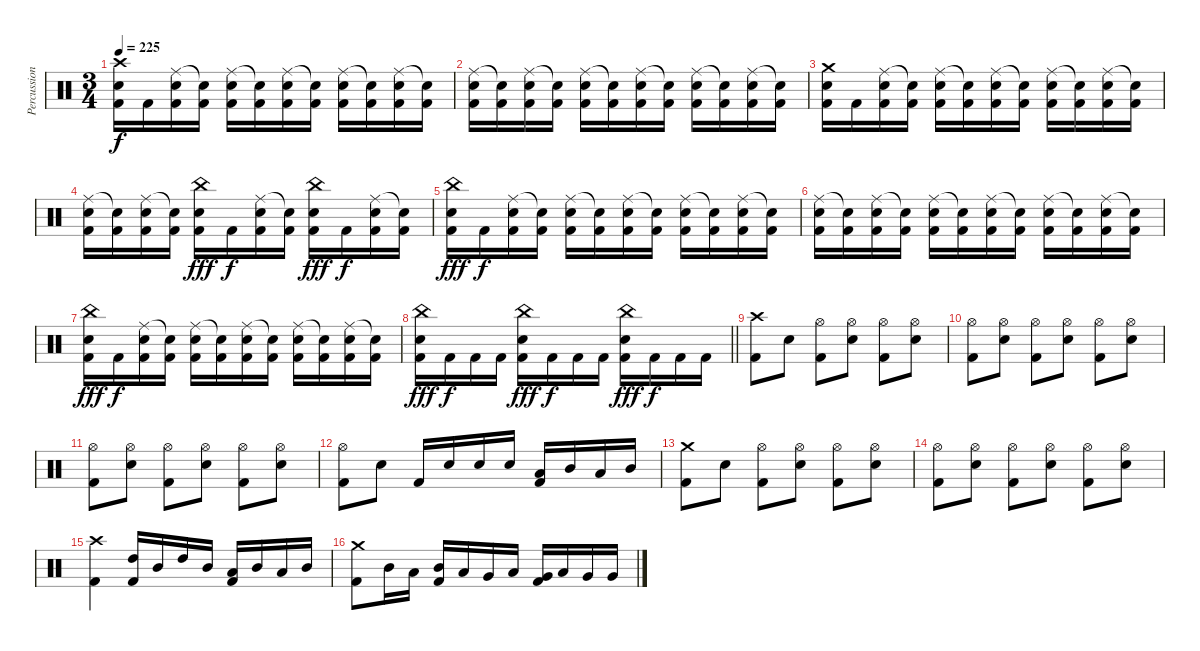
\track ("Percussion" "Percussion") {instrument percussion}
\staff {score}
\articulation defaults
\ts (3 4)
\tempo 225
\clef neutral
\ks c
("Crash high (hit)" "Snare (hit) 2" "Kick (hit) 2").16{dy f} "Kick (hit) 2".16 ("Ride (middle)" "Snare (hit) 2" "Kick (hit) 2").16 ("Snare (hit)"{t} "Kick (hit) 2").16 ("Ride (middle)" "Snare (hit) 2" "Kick (hit) 2").16 ("Snare (hit)"{t} "Kick (hit) 2").16 ("Ride (middle)" "Snare (hit) 2" "Kick (hit) 2").16 ("Snare (hit)"{t} "Kick (hit) 2").16 ("Ride (middle)" "Snare (hit) 2" "Kick (hit) 2").16 ("Snare (hit)"{t} "Kick (hit) 2").16 ("Ride (middle)" "Snare (hit) 2" "Kick (hit) 2").16 ("Snare (hit)"{t} "Kick (hit) 2").16 |
("Ride (middle)" "Snare (hit) 2" "Kick (hit) 2").16 ("Snare (hit)"{t} "Kick (hit) 2").16 ("Ride (middle)" "Snare (hit) 2" "Kick (hit) 2").16 ("Snare (hit)"{t} "Kick (hit) 2").16 ("Ride (middle)" "Snare (hit) 2" "Kick (hit) 2").16 ("Snare (hit)"{t} "Kick (hit) 2").16 ("Ride (middle)" "Snare (hit) 2" "Kick (hit) 2").16 ("Snare (hit)"{t} "Kick (hit) 2").16 ("Ride (middle)" "Snare (hit) 2" "Kick (hit) 2").16 ("Snare (hit)"{t} "Kick (hit) 2").16 ("Ride (middle)" "Snare (hit) 2" "Kick (hit) 2").16 ("Snare (hit)"{t} "Kick (hit) 2").16 |
("Crash medium (hit)" "Snare (hit) 2" "Kick (hit) 2").16 "Kick (hit) 2".16 ("Ride (middle)" "Snare (hit) 2" "Kick (hit) 2").16 ("Snare (hit)"{t} "Kick (hit) 2").16 ("Ride (middle)" "Snare (hit) 2" "Kick (hit) 2").16 ("Snare (hit)"{t} "Kick (hit) 2").16 ("Ride (middle)" "Snare (hit) 2" "Kick (hit) 2").16 ("Snare (hit)"{t} "Kick (hit) 2").16 ("Ride (middle)" "Snare (hit) 2" "Kick (hit) 2").16 ("Snare (hit)"{t} "Kick (hit) 2").16 ("Ride (middle)" "Snare (hit) 2" "Kick (hit) 2").16 ("Snare (hit)"{t} "Kick (hit) 2").16 |
("Ride (middle)" "Snare (hit) 2" "Kick (hit) 2").16 ("Snare (hit)"{t} "Kick (hit) 2").16 ("Ride (middle)" "Snare (hit) 2" "Kick (hit) 2").16 ("Snare (hit)"{t} "Kick (hit) 2").16 ("China (hit)" "Snare (hit) 2" "Kick (hit) 2").16{dy fff} "Kick (hit) 2".16{dy f} ("Ride (middle)" "Snare (hit) 2" "Kick (hit) 2").16 ("Snare (hit)"{t} "Kick (hit) 2").16 ("China (hit)" "Snare (hit) 2" "Kick (hit) 2").16{dy fff} "Kick (hit) 2".16{dy f} ("Ride (middle)" "Snare (hit) 2" "Kick (hit) 2").16 ("Snare (hit)"{t} "Kick (hit) 2").16 |
("China (hit)" "Snare (hit) 2" "Kick (hit) 2").16{dy fff} "Kick (hit) 2".16{dy f} ("Ride (middle)" "Snare (hit) 2" "Kick (hit) 2").16 ("Snare (hit)"{t} "Kick (hit) 2").16 ("Ride (middle)" "Snare (hit) 2" "Kick (hit) 2").16 ("Snare (hit)"{t} "Kick (hit) 2").16 ("Ride (middle)" "Snare (hit) 2" "Kick (hit) 2").16 ("Snare (hit)"{t} "Kick (hit) 2").16 ("Ride (middle)" "Snare (hit) 2" "Kick (hit) 2").16 ("Snare (hit)"{t} "Kick (hit) 2").16 ("Ride (middle)" "Snare (hit) 2" "Kick (hit) 2").16 ("Snare (hit)"{t} "Kick (hit) 2").16 |
("Ride (middle)" "Snare (hit) 2" "Kick (hit) 2").16 ("Snare (hit)"{t} "Kick (hit) 2").16 ("Ride (middle)" "Snare (hit) 2" "Kick (hit) 2").16 ("Snare (hit)"{t} "Kick (hit) 2").16 ("Ride (middle)" "Snare (hit) 2" "Kick (hit) 2").16 ("Snare (hit)"{t} "Kick (hit) 2").16 ("Ride (middle)" "Snare (hit) 2" "Kick (hit) 2").16 ("Snare (hit)"{t} "Kick (hit) 2").16 ("Ride (middle)" "Snare (hit) 2" "Kick (hit) 2").16 ("Snare (hit)"{t} "Kick (hit) 2").16 ("Ride (middle)" "Snare (hit) 2" "Kick (hit) 2").16 ("Snare (hit)"{t} "Kick (hit) 2").16 |
("China (hit)" "Snare (hit) 2" "Kick (hit) 2").16{dy fff} "Kick (hit) 2".16{dy f} ("Ride (middle)" "Snare (hit) 2" "Kick (hit) 2").16 ("Snare (hit)"{t} "Kick (hit) 2").16 ("Ride (middle)" "Snare (hit) 2" "Kick (hit) 2").16 ("Snare (hit)"{t} "Kick (hit) 2").16 ("Ride (middle)" "Snare (hit) 2" "Kick (hit) 2").16 ("Snare (hit)"{t} "Kick (hit) 2").16 ("Ride (middle)" "Snare (hit) 2" "Kick (hit) 2").16 ("Snare (hit)"{t} "Kick (hit) 2").16 ("Ride (middle)" "Snare (hit) 2" "Kick (hit) 2").16 ("Snare (hit)"{t} "Kick (hit) 2").16 |
\barLineRight lightlight
("China (hit)" "Snare (hit) 2" "Kick (hit) 2").16{dy fff} "Kick (hit) 2".16{dy f} "Kick (hit) 2".16 "Kick (hit) 2".16 ("China (hit)" "Snare (hit) 2" "Kick (hit) 2").16{dy fff} "Kick (hit) 2".16{dy f} "Kick (hit) 2".16 "Kick (hit) 2".16 ("China (hit)" "Snare (hit) 2" "Kick (hit) 2").16{dy fff} "Kick (hit) 2".16{dy f} "Kick (hit) 2".16 "Kick (hit) 2".16 |
("Crash high (hit)" "Kick (hit) 2").8 "Snare (hit) 2".8 ("Hi-Hat (open)" "Kick (hit) 2").8 ("Hi-Hat (open)" "Snare (hit) 2").8 ("Hi-Hat (open)" "Kick (hit) 2").8 ("Hi-Hat (open)" "Snare (hit) 2").8 |
("Hi-Hat (open)" "Kick (hit) 2").8 ("Hi-Hat (open)" "Snare (hit) 2").8 ("Hi-Hat (open)" "Kick (hit) 2").8 ("Hi-Hat (open)" "Snare (hit) 2").8 ("Hi-Hat (open)" "Kick (hit) 2").8 ("Hi-Hat (open)" "Snare (hit) 2").8 |
("Hi-Hat (open)" "Kick (hit) 2").8 ("Hi-Hat (open)" "Snare (hit) 2").8 ("Hi-Hat (open)" "Kick (hit) 2").8 ("Hi-Hat (open)" "Snare (hit) 2").8 ("Hi-Hat (open)" "Kick (hit) 2").8 ("Hi-Hat (open)" "Snare (hit) 2").8 |
("Hi-Hat (open)" "Kick (hit) 2").8 "Snare (hit) 2".8 "Kick (hit) 2".16 "Snare (hit) 2".16 "Snare (hit) 2".16 "Snare (hit) 2".16 ("Low Tom (hit)" "Kick (hit) 2").16 "Mid Tom (hit)".16 "Low Tom (hit)".16 "Mid Tom (hit)".16 |
("Crash medium (hit)" "Kick (hit) 2").8 "Snare (hit) 2".8 ("Hi-Hat (open)" "Kick (hit) 2").8 ("Hi-Hat (open)" "Snare (hit) 2").8 ("Hi-Hat (open)" "Kick (hit) 2").8 ("Hi-Hat (open)" "Snare (hit) 2").8 |
("Hi-Hat (open)" "Kick (hit) 2").8 ("Hi-Hat (open)" "Snare (hit) 2").8 ("Hi-Hat (open)" "Kick (hit) 2").8 ("Hi-Hat (open)" "Snare (hit) 2").8 ("Hi-Hat (open)" "Kick (hit) 2").8 ("Hi-Hat (open)" "Snare (hit) 2").8 |
("Crash high (hit)" "Kick (hit) 2").4 ("High Tom (hit)" "Kick (hit) 2").16 "Mid Tom (hit)".16 "High Tom (hit)".16 "Mid Tom (hit)".16 ("Low Tom (hit)" "Kick (hit) 2").16 "Mid Tom (hit)".16 "Low Tom (hit)".16 "Mid Tom (hit)".16 |
("Crash medium (hit)" "Kick (hit) 2").8 "Mid Tom (hit)".16 "Low Tom (hit)".16 ("Mid Tom (hit)" "Kick (hit) 2").16 "Low Tom (hit)".16 "Very Low Tom (hit)".16 "Low Tom (hit)".16 ("Very Low Tom (hit)" "Kick (hit) 2").16 "Low Tom (hit)".16 "Very Low Tom (hit)".16 "Very Low Tom (hit)".16
